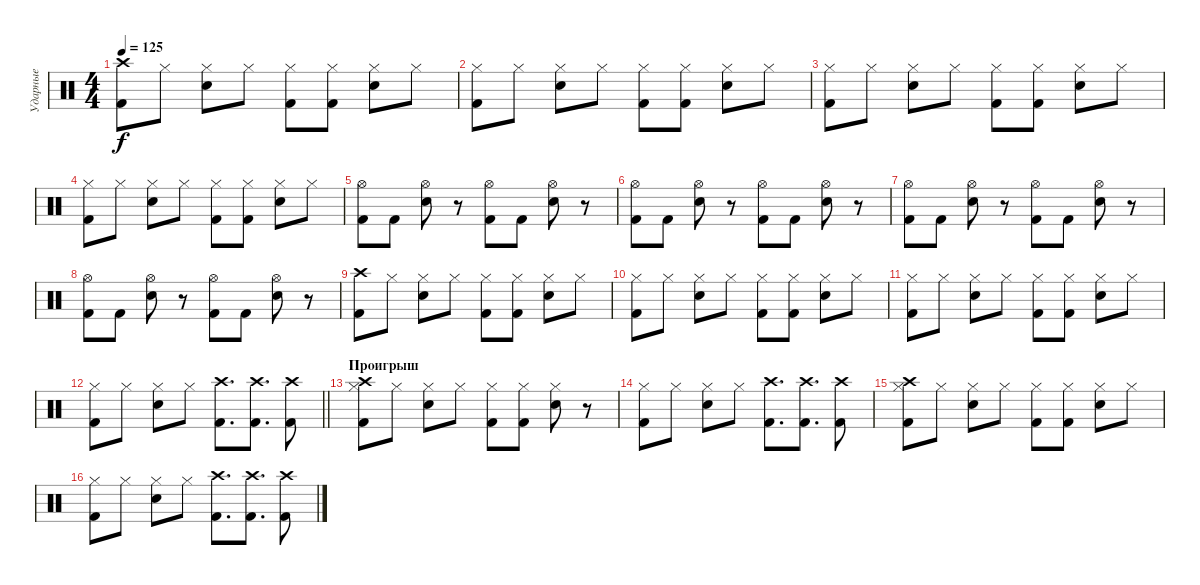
\track ("Ударные" "Ударные") {instrument percussion}
\staff {score}
\articulation defaults
\ts (4 4)
\tempo 125
\clef neutral
\ks c
("Crash high (hit)" "Kick (hit) 2").8{dy f} "Hi-Hat (closed)".8 ("Snare (hit) 2" "Hi-Hat (closed)").8 "Hi-Hat (closed)".8 ("Kick (hit) 2" "Hi-Hat (closed)").8 ("Kick (hit) 2" "Hi-Hat (closed)").8 ("Snare (hit) 2" "Hi-Hat (closed)").8 "Hi-Hat (closed)".8 |
("Kick (hit) 2" "Hi-Hat (closed)").8 "Hi-Hat (closed)".8 ("Snare (hit) 2" "Hi-Hat (closed)").8 "Hi-Hat (closed)".8 ("Kick (hit) 2" "Hi-Hat (closed)").8 ("Kick (hit) 2" "Hi-Hat (closed)").8 ("Snare (hit) 2" "Hi-Hat (closed)").8 "Hi-Hat (closed)".8 |
("Kick (hit) 2" "Hi-Hat (closed)").8 "Hi-Hat (closed)".8 ("Snare (hit) 2" "Hi-Hat (closed)").8 "Hi-Hat (closed)".8 ("Kick (hit) 2" "Hi-Hat (closed)").8 ("Kick (hit) 2" "Hi-Hat (closed)").8 ("Snare (hit) 2" "Hi-Hat (closed)").8 "Hi-Hat (closed)".8 |
("Kick (hit) 2" "Hi-Hat (closed)").8 "Hi-Hat (closed)".8 ("Snare (hit) 2" "Hi-Hat (closed)").8 "Hi-Hat (closed)".8 ("Kick (hit) 2" "Hi-Hat (closed)").8 ("Kick (hit) 2" "Hi-Hat (closed)").8 ("Snare (hit) 2" "Hi-Hat (closed)").8 "Hi-Hat (closed)".8 |
("Kick (hit) 2" "Hi-Hat (open)").8 "Kick (hit) 2".8 ("Snare (hit) 2" "Hi-Hat (open)").8 r.8 ("Kick (hit) 2" "Hi-Hat (open)").8 "Kick (hit) 2".8 ("Snare (hit) 2" "Hi-Hat (open)").8 r.8 |
("Kick (hit) 2" "Hi-Hat (open)").8 "Kick (hit) 2".8 ("Snare (hit) 2" "Hi-Hat (open)").8 r.8 ("Kick (hit) 2" "Hi-Hat (open)").8 "Kick (hit) 2".8 ("Snare (hit) 2" "Hi-Hat (open)").8 r.8 |
("Kick (hit) 2" "Hi-Hat (open)").8 "Kick (hit) 2".8 ("Snare (hit) 2" "Hi-Hat (open)").8 r.8 ("Kick (hit) 2" "Hi-Hat (open)").8 "Kick (hit) 2".8 ("Snare (hit) 2" "Hi-Hat (open)").8 r.8 |
("Kick (hit) 2" "Hi-Hat (open)").8 "Kick (hit) 2".8 ("Snare (hit) 2" "Hi-Hat (open)").8 r.8 ("Kick (hit) 2" "Hi-Hat (open)").8 "Kick (hit) 2".8 ("Snare (hit) 2" "Hi-Hat (open)").8 r.8 |
("Crash high (hit)" "Kick (hit) 2").8 "Hi-Hat (closed)".8 ("Snare (hit) 2" "Hi-Hat (closed)").8 "Hi-Hat (closed)".8 ("Kick (hit) 2" "Hi-Hat (closed)").8 ("Kick (hit) 2" "Hi-Hat (closed)").8 ("Snare (hit) 2" "Hi-Hat (closed)").8 "Hi-Hat (closed)".8 |
("Kick (hit) 2" "Hi-Hat (closed)").8 "Hi-Hat (closed)".8 ("Snare (hit) 2" "Hi-Hat (closed)").8 "Hi-Hat (closed)".8 ("Kick (hit) 2" "Hi-Hat (closed)").8 ("Kick (hit) 2" "Hi-Hat (closed)").8 ("Snare (hit) 2" "Hi-Hat (closed)").8 "Hi-Hat (closed)".8 |
("Kick (hit) 2" "Hi-Hat (closed)").8 "Hi-Hat (closed)".8 ("Snare (hit) 2" "Hi-Hat (closed)").8 "Hi-Hat (closed)".8 ("Kick (hit) 2" "Hi-Hat (closed)").8 ("Kick (hit) 2" "Hi-Hat (closed)").8 ("Snare (hit) 2" "Hi-Hat (closed)").8 "Hi-Hat (closed)".8 |
\barLineRight lightlight
("Kick (hit) 2" "Hi-Hat (closed)").8 "Hi-Hat (closed)".8 ("Snare (hit) 2" "Hi-Hat (closed)").8 "Hi-Hat (closed)".8 ("Crash high (hit)" "Kick (hit) 2").8{d} ("Crash high (hit)" "Kick (hit) 2").8{d} ("Crash high (hit)" "Kick (hit) 2").8 |
\section ("" "Проигрыш")
("Crash high (hit)" "Kick (hit) 2" "Hi-Hat (closed)").8 "Hi-Hat (closed)".8 ("Snare (hit) 2" "Hi-Hat (closed)").8 "Hi-Hat (closed)".8 ("Kick (hit) 2" "Hi-Hat (closed)").8 ("Kick (hit) 2" "Hi-Hat (closed)").8 ("Snare (hit) 2" "Hi-Hat (closed)").8 r.8 |
("Kick (hit) 2" "Hi-Hat (closed)").8 "Hi-Hat (closed)".8 ("Snare (hit) 2" "Hi-Hat (closed)").8 "Hi-Hat (closed)".8 ("Crash high (hit)" "Kick (hit) 2").8{d} ("Crash high (hit)" "Kick (hit) 2").8{d} ("Crash high (hit)" "Kick (hit) 2").8 |
("Crash high (hit)" "Kick (hit) 2" "Hi-Hat (closed)").8 "Hi-Hat (closed)".8 ("Snare (hit) 2" "Hi-Hat (closed)").8 "Hi-Hat (closed)".8 ("Kick (hit) 2" "Hi-Hat (closed)").8 ("Kick (hit) 2" "Hi-Hat (closed)").8 ("Snare (hit) 2" "Hi-Hat (closed)").8 "Hi-Hat (closed)".8 |
("Kick (hit) 2" "Hi-Hat (closed)").8 "Hi-Hat (closed)".8 ("Snare (hit) 2" "Hi-Hat (closed)").8 "Hi-Hat (closed)".8 ("Crash high (hit)" "Kick (hit) 2").8{d} ("Crash high (hit)" "Kick (hit) 2").8{d} ("Crash high (hit)" "Kick (hit) 2").8
